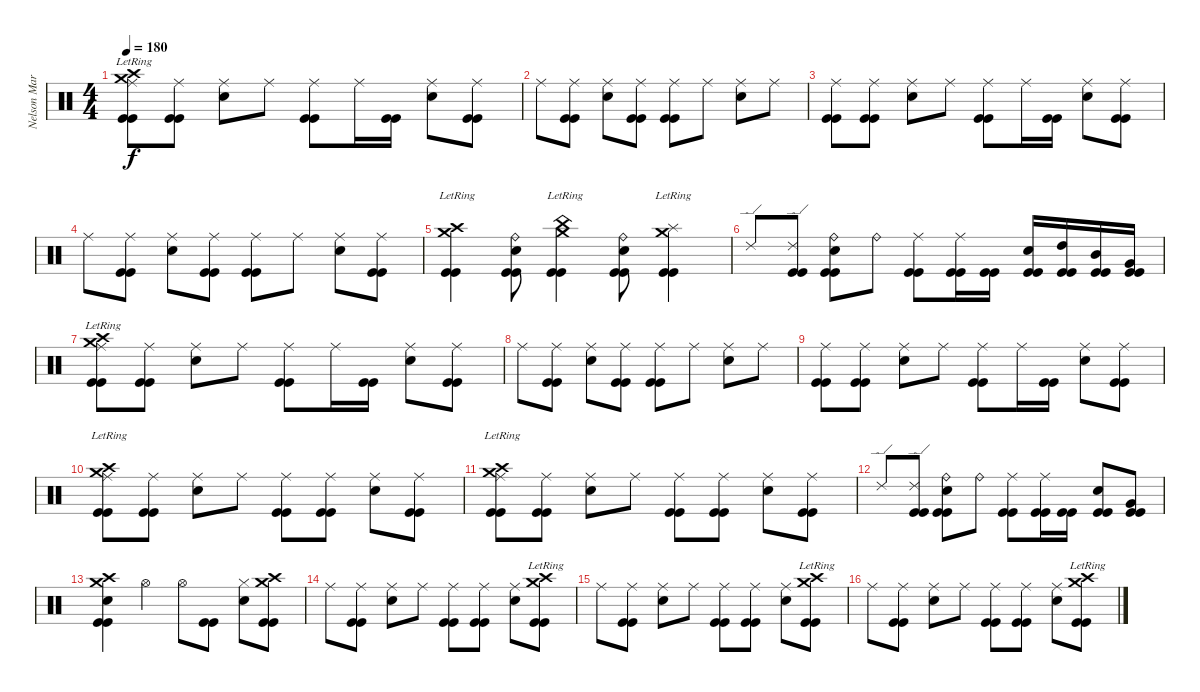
\track ("Nelson Maria" "Nelson Mar") {instrument percussion}
\staff {score}
\articulation defaults
\ts (4 4)
\tempo 180
\clef neutral
\ks c
("Crash high (hit)"{lr} "Crash medium (hit)"{lr} "Ride (middle)" "Kick (hit)" "Kick (hit)").8{dy f} ("Ride (middle)" "Kick (hit)" "Kick (hit)").8 ("Snare (hit) 2" "Ride (middle)").8 "Ride (middle)".8 ("Ride (middle)" "Kick (hit)" "Kick (hit)").8 "Ride (middle)".16 ("Kick (hit)" "Kick (hit)").16 ("Snare (hit) 2" "Ride (middle)").8 ("Ride (middle)" "Kick (hit)" "Kick (hit)").8 |
"Ride (middle)".8 ("Ride (middle)" "Kick (hit)" "Kick (hit)").8 ("Snare (hit) 2" "Ride (middle)").8 ("Ride (middle)" "Kick (hit)" "Kick (hit)").8 ("Ride (middle)" "Kick (hit)" "Kick (hit)").8 "Ride (middle)".8 ("Snare (hit) 2" "Ride (middle)").8 "Ride (middle)".8 |
("Ride (middle)" "Kick (hit)" "Kick (hit)").8 ("Ride (middle)" "Kick (hit)" "Kick (hit)").8 ("Snare (hit) 2" "Ride (middle)").8 "Ride (middle)".8 ("Ride (middle)" "Kick (hit)" "Kick (hit)").8 "Ride (middle)".16 ("Kick (hit)" "Kick (hit)").16 ("Snare (hit) 2" "Ride (middle)").8 ("Ride (middle)" "Kick (hit)" "Kick (hit)").8 |
"Ride (middle)".8 ("Ride (middle)" "Kick (hit)" "Kick (hit)").8 ("Snare (hit) 2" "Ride (middle)").8 ("Ride (middle)" "Kick (hit)" "Kick (hit)").8 ("Ride (middle)" "Kick (hit)" "Kick (hit)").8 "Ride (middle)".8 ("Snare (hit) 2" "Ride (middle)").8 ("Ride (middle)" "Kick (hit)" "Kick (hit)").8 |
("Crash high (hit)"{lr} "Crash medium (hit)"{lr} "Kick (hit)" "Kick (hit)").4 ("Snare (hit) 2" "Ride (bell)" "Kick (hit)" "Kick (hit)").8 ("Crash medium (hit)"{lr} "China (hit)"{lr} "Kick (hit)" "Kick (hit)").4 ("Snare (hit) 2" "Ride (bell)" "Kick (hit)" "Kick (hit)").8 ("Crash medium (hit)"{lr} "Splash (hit)"{lr} "Kick (hit)" "Kick (hit)").4 |
"Ride (edge) 2".8 ("Ride (edge) 2" "Kick (hit)" "Kick (hit)").8 ("Snare (hit) 2" "Ride (bell)" "Kick (hit)" "Kick (hit)").8 "Ride (bell)".8 ("Ride (middle)" "Kick (hit)" "Kick (hit)").8 ("Ride (middle)" "Kick (hit)" "Kick (hit)").16 ("Kick (hit)" "Kick (hit)").16 ("Snare (hit) 2" "Kick (hit)" "Kick (hit)").16 ("High Tom (hit)" "Kick (hit)" "Kick (hit)").16 ("Mid Tom (hit)" "Kick (hit)" "Kick (hit)").16 ("Very Low Tom (hit)" "Kick (hit)" "Kick (hit)").16 |
("Crash high (hit)"{lr} "Crash medium (hit)"{lr} "Ride (middle)" "Kick (hit)" "Kick (hit)").8 ("Ride (middle)" "Kick (hit)" "Kick (hit)").8 ("Snare (hit) 2" "Ride (middle)").8 "Ride (middle)".8 ("Ride (middle)" "Kick (hit)" "Kick (hit)").8 "Ride (middle)".16 ("Kick (hit)" "Kick (hit)").16 ("Snare (hit) 2" "Ride (middle)").8 ("Ride (middle)" "Kick (hit)" "Kick (hit)").8 |
"Ride (middle)".8 ("Ride (middle)" "Kick (hit)" "Kick (hit)").8 ("Snare (hit) 2" "Ride (middle)").8 ("Ride (middle)" "Kick (hit)" "Kick (hit)").8 ("Ride (middle)" "Kick (hit)" "Kick (hit)").8 "Ride (middle)".8 ("Snare (hit) 2" "Ride (middle)").8 "Ride (middle)".8 |
("Ride (middle)" "Kick (hit)" "Kick (hit)").8 ("Ride (middle)" "Kick (hit)" "Kick (hit)").8 ("Snare (hit) 2" "Ride (middle)").8 "Ride (middle)".8 ("Ride (middle)" "Kick (hit)" "Kick (hit)").8 "Ride (middle)".16 ("Kick (hit)" "Kick (hit)").16 ("Snare (hit) 2" "Ride (middle)").8 ("Ride (middle)" "Kick (hit)" "Kick (hit)").8 |
("Crash high (hit)"{lr} "Crash medium (hit)"{lr} "Ride (middle)" "Kick (hit)" "Kick (hit)").8 ("Ride (middle)" "Kick (hit)" "Kick (hit)").8 ("Snare (hit) 2" "Ride (middle)").8 "Ride (middle)".8 ("Ride (middle)" "Kick (hit)" "Kick (hit)").8 ("Ride (middle)" "Kick (hit)" "Kick (hit)").8 ("Snare (hit) 2" "Ride (middle)").8 ("Ride (middle)" "Kick (hit)" "Kick (hit)").8 |
("Crash high (hit)"{lr} "Crash medium (hit)"{lr} "Ride (middle)" "Kick (hit)" "Kick (hit)").8 ("Ride (middle)" "Kick (hit)" "Kick (hit)").8 ("Snare (hit) 2" "Ride (middle)").8 "Ride (middle)".8 ("Ride (middle)" "Kick (hit)" "Kick (hit)").8 ("Ride (middle)" "Kick (hit)" "Kick (hit)").8 ("Snare (hit) 2" "Ride (middle)").8 ("Ride (middle)" "Kick (hit)" "Kick (hit)").8 |
"Ride (edge) 2".8 ("Ride (edge) 2" "Kick (hit)" "Kick (hit)").8 ("Snare (hit) 2" "Ride (bell)" "Kick (hit)" "Kick (hit)").8 "Ride (bell)".8 ("Ride (middle)" "Kick (hit)" "Kick (hit)").8 ("Ride (middle)" "Kick (hit)" "Kick (hit)").16 ("Kick (hit)" "Kick (hit)").16 ("Snare (hit) 2" "Kick (hit)" "Kick (hit)").8 ("Very Low Tom (hit)" "Kick (hit)" "Kick (hit)").8 |
("Crash high (hit)" "Crash medium (hit)" "Snare (hit) 2" "Kick (hit)" "Kick (hit)").4 "Hi-Hat (open)".4 "Hi-Hat (open)".8 ("Kick (hit)" "Kick (hit)").8 ("Snare (hit) 2" "Hi-Hat (closed)").8 ("Crash high (hit)" "Crash medium (hit)" "Kick (hit)" "Kick (hit)").8 |
"Ride (middle)".8 ("Ride (middle)" "Kick (hit)" "Kick (hit)").8 ("Snare (hit) 2" "Ride (middle)").8 "Ride (middle)".8 ("Ride (middle)" "Kick (hit)" "Kick (hit)").8 ("Ride (middle)" "Kick (hit)" "Kick (hit)").8 ("Snare (hit) 2" "Ride (middle)").8 ("Crash high (hit)"{lr} "Crash medium (hit)"{lr} "Kick (hit)" "Kick (hit)").8 |
"Ride (middle)".8 ("Ride (middle)" "Kick (hit)" "Kick (hit)").8 ("Snare (hit) 2" "Ride (middle)").8 "Ride (middle)".8 ("Ride (middle)" "Kick (hit)" "Kick (hit)").8 ("Ride (middle)" "Kick (hit)" "Kick (hit)").8 ("Snare (hit) 2" "Ride (middle)").8 ("Crash high (hit)"{lr} "Crash medium (hit)"{lr} "Kick (hit)" "Kick (hit)").8 |
"Ride (middle)".8 ("Ride (middle)" "Kick (hit)" "Kick (hit)").8 ("Snare (hit) 2" "Ride (middle)").8 "Ride (middle)".8 ("Ride (middle)" "Kick (hit)" "Kick (hit)").8 ("Ride (middle)" "Kick (hit)" "Kick (hit)").8 ("Snare (hit) 2" "Ride (middle)").8 ("Crash high (hit)"{lr} "Crash medium (hit)"{lr} "Kick (hit)" "Kick (hit)").8
